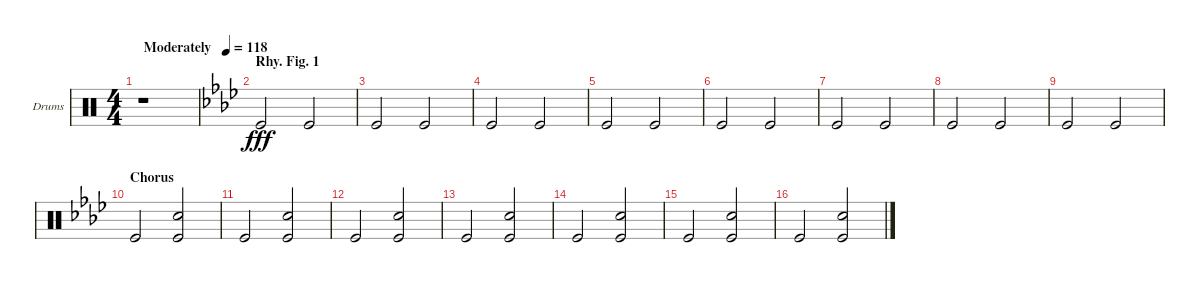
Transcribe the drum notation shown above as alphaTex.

\defaultSystemsLayout 4
\bracketExtendMode groupsimilarinstruments
\firstSystemTrackNameOrientation horizontal
\otherSystemsTrackNameOrientation horizontal
\track ("Nick Menza" "Drums") {instrument percussion}
\staff {score}
\articulation defaults
\ts (4 4)
\tempo (118 "Moderately  ")
\clef neutral
\scale
0.376384
\ks c
r.1{dy fff} |
\section ("" "Rhy. Fig. 1")
\scale
0.413284
\ks ab "Kick (hit)".2 "Kick (hit)".2
|
\section ("" "")
\scale
0.210332 "Kick (hit)".2 "Kick (hit)".2 |
\scale
0.333333 "Kick (hit)".2 "Kick (hit)".2 |
\scale
0.333333 "Kick (hit)".2 "Kick (hit)".2 |
\scale
0.333333 "Kick (hit)".2 "Kick (hit)".2 |
"Kick (hit)".2 "Kick (hit)".2 |
"Kick (hit)".2 "Kick (hit)".2 |
"Kick (hit)".2 "Kick (hit)".2 |
\section ("" "Chorus")
"Kick (hit)".2 ("Kick (hit)" "Snare (hit) 2").2 |
"Kick (hit)".2 ("Kick (hit)" "Snare (hit) 2").2 |
"Kick (hit)".2 ("Kick (hit)" "Snare (hit) 2").2 |
"Kick (hit)".2 ("Kick (hit)" "Snare (hit) 2").2 |
"Kick (hit)".2 ("Kick (hit)" "Snare (hit) 2").2 |
"Kick (hit)".2 ("Kick (hit)" "Snare (hit) 2").2 |
"Kick (hit)".2 ("Kick (hit)" "Snare (hit) 2").2
